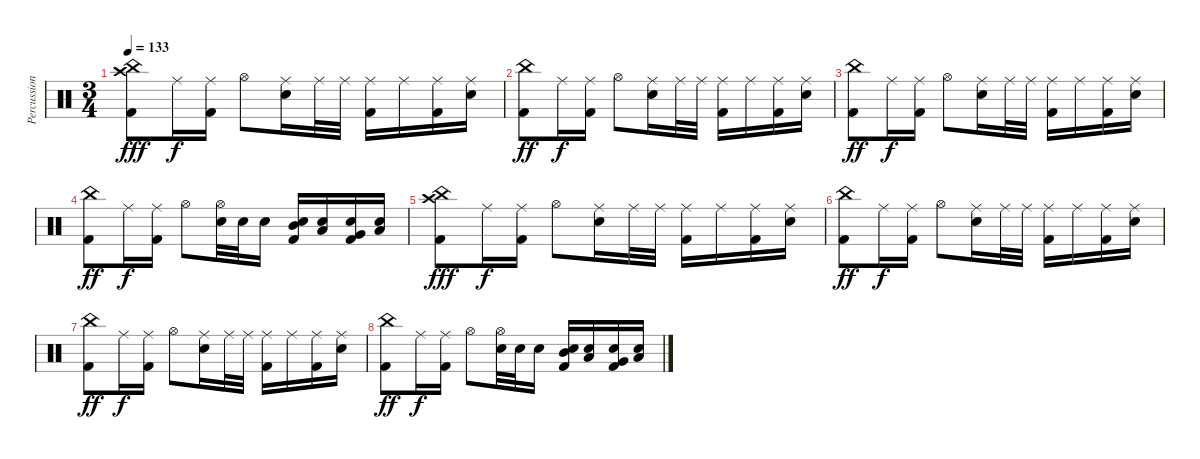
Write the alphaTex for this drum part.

\track ("Percussion" "Percussion") {instrument percussion}
\staff {score}
\articulation defaults
\ts (3 4)
\tempo 133
\clef neutral
\ks c
("China (hit)" "Crash high (hit)" "Kick (hit) 2").8{dy fff} "Ride (middle)".16{dy f} ("Ride (middle)" "Kick (hit) 2").16 "Hi-Hat (open)".8 ("Ride (middle)" "Electric Snare (hit)").16 "Ride (middle)".32 "Ride (middle)".32 ("Ride (middle)" "Kick (hit) 2").16 "Ride (middle)".16 ("Ride (middle)" "Kick (hit) 2").16 ("Ride (middle)" "Electric Snare (hit)").16 |
("China (hit)" "Kick (hit) 2").8{dy ff} "Ride (middle)".16{dy f} ("Ride (middle)" "Kick (hit) 2").16 "Hi-Hat (open)".8 ("Ride (middle)" "Electric Snare (hit)").16 "Ride (middle)".32 "Ride (middle)".32 ("Ride (middle)" "Kick (hit) 2").16 "Ride (middle)".16 ("Ride (middle)" "Kick (hit) 2").16 ("Ride (middle)" "Electric Snare (hit)").16 |
("China (hit)" "Kick (hit) 2").8{dy ff} "Ride (middle)".16{dy f} ("Ride (middle)" "Kick (hit) 2").16 "Hi-Hat (open)".8 ("Ride (middle)" "Electric Snare (hit)").16 "Ride (middle)".32 "Ride (middle)".32 ("Ride (middle)" "Kick (hit) 2").16 "Ride (middle)".16 ("Ride (middle)" "Kick (hit) 2").16 ("Ride (middle)" "Electric Snare (hit)").16 |
("China (hit)" "Kick (hit) 2").8{dy ff} "Ride (middle)".16{dy f} ("Ride (middle)" "Kick (hit) 2").16 "Hi-Hat (open)".8 ("Electric Snare (hit)" "Hi-Hat (open)").32 "Electric Snare (hit)".32 "Electric Snare (hit)".16 ("Electric Snare (hit)" "Mid Tom (hit)" "Kick (hit) 2").16 ("Electric Snare (hit)" "Low Tom (hit)").16 ("Electric Snare (hit)" "Very Low Tom (hit)" "Kick (hit) 2").16 ("Electric Snare (hit)" "Low Floor Tom (hit)").16 |
("China (hit)" "Crash high (hit)" "Kick (hit) 2").8{dy fff} "Ride (middle)".16{dy f} ("Ride (middle)" "Kick (hit) 2").16 "Hi-Hat (open)".8 ("Ride (middle)" "Electric Snare (hit)").16 "Ride (middle)".32 "Ride (middle)".32 ("Ride (middle)" "Kick (hit) 2").16 "Ride (middle)".16 ("Ride (middle)" "Kick (hit) 2").16 ("Ride (middle)" "Electric Snare (hit)").16 |
("China (hit)" "Kick (hit) 2").8{dy ff} "Ride (middle)".16{dy f} ("Ride (middle)" "Kick (hit) 2").16 "Hi-Hat (open)".8 ("Ride (middle)" "Electric Snare (hit)").16 "Ride (middle)".32 "Ride (middle)".32 ("Ride (middle)" "Kick (hit) 2").16 "Ride (middle)".16 ("Ride (middle)" "Kick (hit) 2").16 ("Ride (middle)" "Electric Snare (hit)").16 |
("China (hit)" "Kick (hit) 2").8{dy ff} "Ride (middle)".16{dy f} ("Ride (middle)" "Kick (hit) 2").16 "Hi-Hat (open)".8 ("Ride (middle)" "Electric Snare (hit)").16 "Ride (middle)".32 "Ride (middle)".32 ("Ride (middle)" "Kick (hit) 2").16 "Ride (middle)".16 ("Ride (middle)" "Kick (hit) 2").16 ("Ride (middle)" "Electric Snare (hit)").16 |
("China (hit)" "Kick (hit) 2").8{dy ff} "Ride (middle)".16{dy f} ("Ride (middle)" "Kick (hit) 2").16 "Hi-Hat (open)".8 ("Electric Snare (hit)" "Hi-Hat (open)").32 "Electric Snare (hit)".32 "Electric Snare (hit)".16 ("Electric Snare (hit)" "Mid Tom (hit)" "Kick (hit) 2").16 ("Electric Snare (hit)" "Low Tom (hit)").16 ("Electric Snare (hit)" "Very Low Tom (hit)" "Kick (hit) 2").16 ("Electric Snare (hit)" "Low Floor Tom (hit)").16
